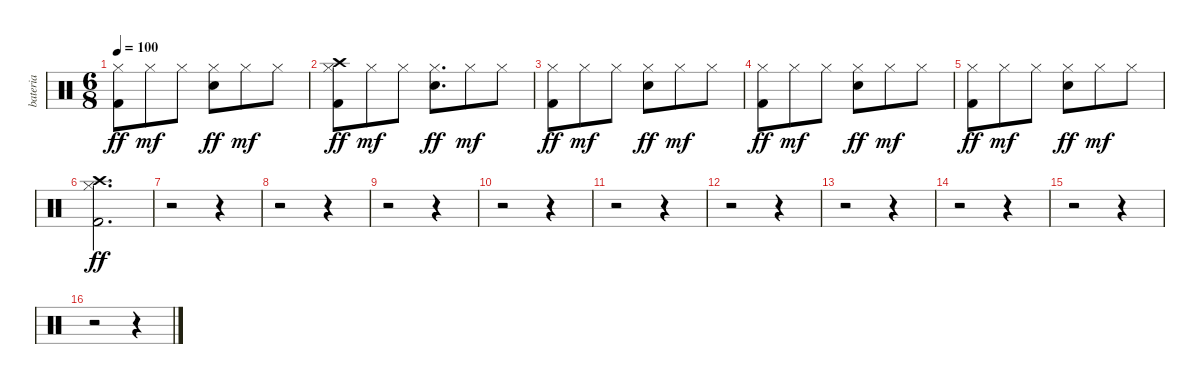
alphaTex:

\track ("bateria" "bateria") {instrument percussion}
\staff {score}
\articulation defaults
\ts (6 8)
\tempo 100
\clef neutral
\ks c
("Hi-Hat (closed)" "Kick (hit) 2").8{dy ff} "Hi-Hat (closed)".8{dy mf} "Hi-Hat (closed)".8 ("Hi-Hat (closed)" "Snare (hit) 2").8{dy ff} "Hi-Hat (closed)".8{dy mf} "Hi-Hat (closed)".8 |
("Crash high (hit)" "Hi-Hat (closed)" "Kick (hit) 2").8{dy ff} "Hi-Hat (closed)".8{dy mf} "Hi-Hat (closed)".8 ("Hi-Hat (closed)" "Snare (hit) 2").8{d dy ff} "Hi-Hat (closed)".8{dy mf} "Hi-Hat (closed)".8 |
("Hi-Hat (closed)" "Kick (hit) 2").8{dy ff} "Hi-Hat (closed)".8{dy mf} "Hi-Hat (closed)".8 ("Hi-Hat (closed)" "Snare (hit) 2").8{dy ff} "Hi-Hat (closed)".8{dy mf} "Hi-Hat (closed)".8 |
("Hi-Hat (closed)" "Kick (hit) 2").8{dy ff} "Hi-Hat (closed)".8{dy mf} "Hi-Hat (closed)".8 ("Hi-Hat (closed)" "Snare (hit) 2").8{dy ff} "Hi-Hat (closed)".8{dy mf} "Hi-Hat (closed)".8 |
("Hi-Hat (closed)" "Kick (hit) 2").8{dy ff} "Hi-Hat (closed)".8{dy mf} "Hi-Hat (closed)".8 ("Hi-Hat (closed)" "Snare (hit) 2").8{dy ff} "Hi-Hat (closed)".8{dy mf} "Hi-Hat (closed)".8 |
("Crash high (hit)" "Hi-Hat (closed)" "Kick (hit) 2").2{d dy ff} |
r.2 r.4 |
r.2 r.4 |
r.2 r.4 |
r.2 r.4 |
r.2 r.4 |
r.2 r.4 |
r.2 r.4 |
r.2 r.4 |
r.2 r.4 |
r.2 r.4
